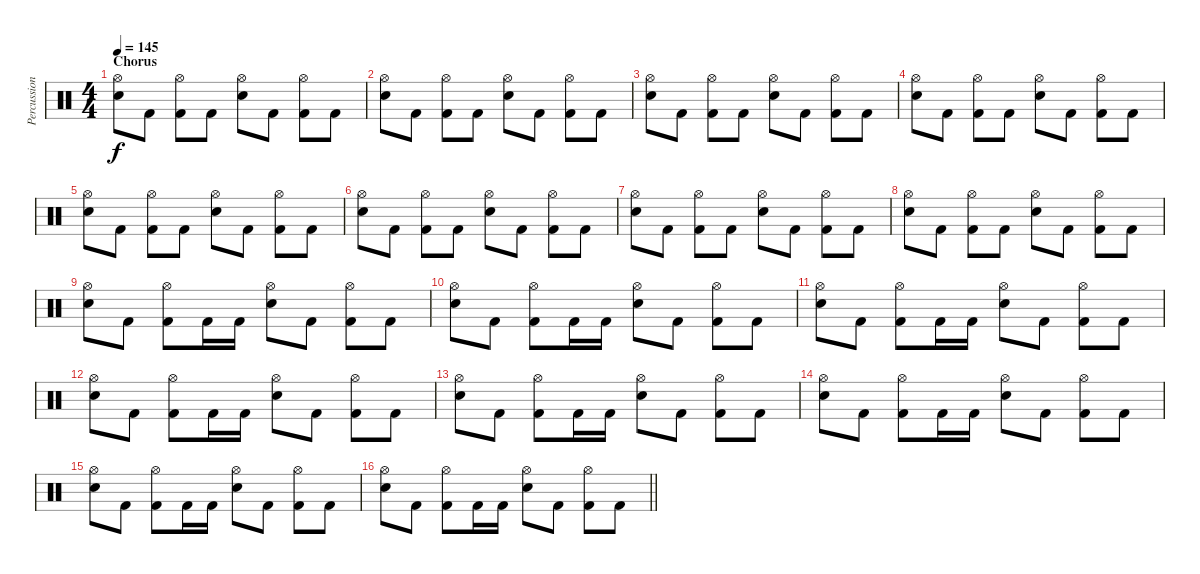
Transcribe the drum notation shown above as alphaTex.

\track ("Percussion" "Percussion") {instrument percussion}
\staff {score}
\articulation defaults
\ts (4 4)
\section ("" "Chorus")
\tempo 145
\clef neutral
\ks c
("Hi-Hat (open)" "Electric Snare (hit)").8{dy f} "Kick (hit) 2".8 ("Hi-Hat (open)" "Kick (hit) 2").8 "Kick (hit) 2".8 ("Hi-Hat (open)" "Electric Snare (hit)").8 "Kick (hit) 2".8 ("Hi-Hat (open)" "Kick (hit) 2").8 "Kick (hit) 2".8 |
("Hi-Hat (open)" "Electric Snare (hit)").8 "Kick (hit) 2".8 ("Hi-Hat (open)" "Kick (hit) 2").8 "Kick (hit) 2".8 ("Hi-Hat (open)" "Electric Snare (hit)").8 "Kick (hit) 2".8 ("Hi-Hat (open)" "Kick (hit) 2").8 "Kick (hit) 2".8 |
("Hi-Hat (open)" "Electric Snare (hit)").8 "Kick (hit) 2".8 ("Hi-Hat (open)" "Kick (hit) 2").8 "Kick (hit) 2".8 ("Hi-Hat (open)" "Electric Snare (hit)").8 "Kick (hit) 2".8 ("Hi-Hat (open)" "Kick (hit) 2").8 "Kick (hit) 2".8 |
("Hi-Hat (open)" "Electric Snare (hit)").8 "Kick (hit) 2".8 ("Hi-Hat (open)" "Kick (hit) 2").8 "Kick (hit) 2".8 ("Hi-Hat (open)" "Electric Snare (hit)").8 "Kick (hit) 2".8 ("Hi-Hat (open)" "Kick (hit) 2").8 "Kick (hit) 2".8 |
("Hi-Hat (open)" "Electric Snare (hit)").8 "Kick (hit) 2".8 ("Hi-Hat (open)" "Kick (hit) 2").8 "Kick (hit) 2".8 ("Hi-Hat (open)" "Electric Snare (hit)").8 "Kick (hit) 2".8 ("Hi-Hat (open)" "Kick (hit) 2").8 "Kick (hit) 2".8 |
("Hi-Hat (open)" "Electric Snare (hit)").8 "Kick (hit) 2".8 ("Hi-Hat (open)" "Kick (hit) 2").8 "Kick (hit) 2".8 ("Hi-Hat (open)" "Electric Snare (hit)").8 "Kick (hit) 2".8 ("Hi-Hat (open)" "Kick (hit) 2").8 "Kick (hit) 2".8 |
("Hi-Hat (open)" "Electric Snare (hit)").8 "Kick (hit) 2".8 ("Hi-Hat (open)" "Kick (hit) 2").8 "Kick (hit) 2".8 ("Hi-Hat (open)" "Electric Snare (hit)").8 "Kick (hit) 2".8 ("Hi-Hat (open)" "Kick (hit) 2").8 "Kick (hit) 2".8 |
("Hi-Hat (open)" "Electric Snare (hit)").8 "Kick (hit) 2".8 ("Hi-Hat (open)" "Kick (hit) 2").8 "Kick (hit) 2".8 ("Hi-Hat (open)" "Electric Snare (hit)").8 "Kick (hit) 2".8 ("Hi-Hat (open)" "Kick (hit) 2").8 "Kick (hit) 2".8 |
("Hi-Hat (open)" "Electric Snare (hit)").8 "Kick (hit) 2".8 ("Hi-Hat (open)" "Kick (hit) 2").8 "Kick (hit) 2".16 "Kick (hit) 2".16 ("Hi-Hat (open)" "Electric Snare (hit)").8 "Kick (hit) 2".8 ("Hi-Hat (open)" "Kick (hit) 2").8 "Kick (hit) 2".8 |
("Hi-Hat (open)" "Electric Snare (hit)").8 "Kick (hit) 2".8 ("Hi-Hat (open)" "Kick (hit) 2").8 "Kick (hit) 2".16 "Kick (hit) 2".16 ("Hi-Hat (open)" "Electric Snare (hit)").8 "Kick (hit) 2".8 ("Hi-Hat (open)" "Kick (hit) 2").8 "Kick (hit) 2".8 |
("Hi-Hat (open)" "Electric Snare (hit)").8 "Kick (hit) 2".8 ("Hi-Hat (open)" "Kick (hit) 2").8 "Kick (hit) 2".16 "Kick (hit) 2".16 ("Hi-Hat (open)" "Electric Snare (hit)").8 "Kick (hit) 2".8 ("Hi-Hat (open)" "Kick (hit) 2").8 "Kick (hit) 2".8 |
("Hi-Hat (open)" "Electric Snare (hit)").8 "Kick (hit) 2".8 ("Hi-Hat (open)" "Kick (hit) 2").8 "Kick (hit) 2".16 "Kick (hit) 2".16 ("Hi-Hat (open)" "Electric Snare (hit)").8 "Kick (hit) 2".8 ("Hi-Hat (open)" "Kick (hit) 2").8 "Kick (hit) 2".8 |
("Hi-Hat (open)" "Electric Snare (hit)").8 "Kick (hit) 2".8 ("Hi-Hat (open)" "Kick (hit) 2").8 "Kick (hit) 2".16 "Kick (hit) 2".16 ("Hi-Hat (open)" "Electric Snare (hit)").8 "Kick (hit) 2".8 ("Hi-Hat (open)" "Kick (hit) 2").8 "Kick (hit) 2".8 |
("Hi-Hat (open)" "Electric Snare (hit)").8 "Kick (hit) 2".8 ("Hi-Hat (open)" "Kick (hit) 2").8 "Kick (hit) 2".16 "Kick (hit) 2".16 ("Hi-Hat (open)" "Electric Snare (hit)").8 "Kick (hit) 2".8 ("Hi-Hat (open)" "Kick (hit) 2").8 "Kick (hit) 2".8 |
("Hi-Hat (open)" "Electric Snare (hit)").8 "Kick (hit) 2".8 ("Hi-Hat (open)" "Kick (hit) 2").8 "Kick (hit) 2".16 "Kick (hit) 2".16 ("Hi-Hat (open)" "Electric Snare (hit)").8 "Kick (hit) 2".8 ("Hi-Hat (open)" "Kick (hit) 2").8 "Kick (hit) 2".8 |
\barLineRight lightlight
("Hi-Hat (open)" "Electric Snare (hit)").8 "Kick (hit) 2".8 ("Hi-Hat (open)" "Kick (hit) 2").8 "Kick (hit) 2".16 "Kick (hit) 2".16 ("Hi-Hat (open)" "Electric Snare (hit)").8 "Kick (hit) 2".8 ("Hi-Hat (open)" "Kick (hit) 2").8 "Kick (hit) 2".8
